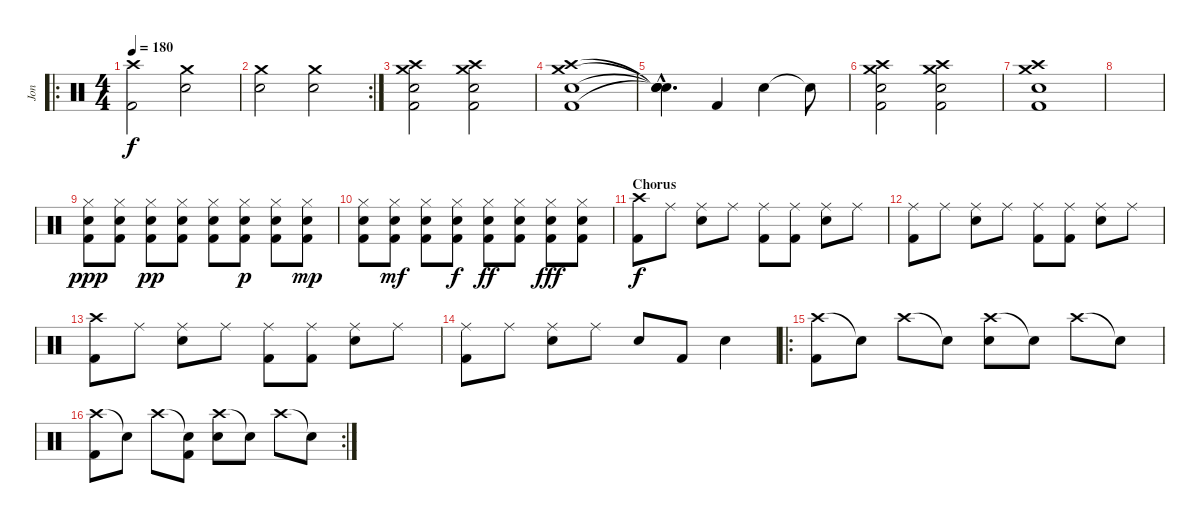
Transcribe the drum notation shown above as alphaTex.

\track ("Jon" "Jon") {instrument percussion}
\staff {score}
\articulation defaults
\ro
\ts (4 4)
\tempo 180
\clef neutral
\ks c
("Crash high (hit)" "Kick (hit) 2").2{dy f} ("Crash medium (hit)" "Snare (hit) 2").2 |
\rc 2
("Crash medium (hit)" "Snare (hit) 2").2 ("Crash medium (hit)" "Snare (hit) 2").2 |
("Crash medium (hit)" "Crash high (hit)" "Snare (hit) 2" "Kick (hit) 2").2 ("Crash medium (hit)" "Crash high (hit)" "Snare (hit) 2" "Kick (hit) 2").2 |
("Crash medium (hit)" "Crash high (hit)" "Snare (hit) 2" "Kick (hit) 2").1 |
("Snare (hit)"{hac t} "Snare (hit)"{hac t} "Snare (hit)"{hac t} "Snare (hit)"{hac t}).4{d} "Kick (hit) 2".4 "Snare (hit) 2".4 "Snare (hit)"{t}.8 |
("Crash medium (hit)" "Crash high (hit)" "Snare (hit) 2" "Kick (hit) 2").2 ("Crash medium (hit)" "Crash high (hit)" "Snare (hit) 2" "Kick (hit) 2").2 |
("Crash medium (hit)" "Crash high (hit)" "Snare (hit) 2" "Kick (hit) 2").1 |
|
("Hi-Hat (closed)" "Snare (hit) 2" "Kick (hit) 2").8{dy ppp} ("Hi-Hat (closed)" "Snare (hit) 2" "Kick (hit) 2").8 ("Hi-Hat (closed)" "Snare (hit) 2" "Kick (hit) 2").8{dy pp} ("Hi-Hat (closed)" "Snare (hit) 2" "Kick (hit) 2").8 ("Hi-Hat (closed)" "Snare (hit) 2" "Kick (hit) 2").8 ("Hi-Hat (closed)" "Snare (hit) 2" "Kick (hit) 2").8{dy p} ("Hi-Hat (closed)" "Snare (hit) 2" "Kick (hit) 2").8 ("Hi-Hat (closed)" "Snare (hit) 2" "Kick (hit) 2").8{dy mp} |
("Hi-Hat (closed)" "Snare (hit) 2" "Kick (hit) 2").8 ("Hi-Hat (closed)" "Snare (hit) 2" "Kick (hit) 2").8{dy mf} ("Hi-Hat (closed)" "Snare (hit) 2" "Kick (hit) 2").8 ("Hi-Hat (closed)" "Snare (hit) 2" "Kick (hit) 2").8{dy f} ("Hi-Hat (closed)" "Snare (hit) 2" "Kick (hit) 2").8{dy ff} ("Hi-Hat (closed)" "Snare (hit) 2" "Kick (hit) 2").8 ("Hi-Hat (closed)" "Snare (hit) 2" "Kick (hit) 2").8{dy fff} ("Hi-Hat (closed)" "Snare (hit) 2" "Kick (hit) 2").8 |
\section ("" "Chorus")
("Crash high (hit)" "Kick (hit) 2").8{dy f} "Ride (middle)".8 ("Ride (middle)" "Snare (hit) 2").8 "Ride (middle)".8 ("Ride (middle)" "Kick (hit) 2").8 ("Ride (middle)" "Kick (hit) 2").8 ("Ride (middle)" "Snare (hit) 2").8 "Ride (middle)".8 |
("Ride (middle)" "Kick (hit) 2").8 "Ride (middle)".8 ("Ride (middle)" "Snare (hit) 2").8 "Ride (middle)".8 ("Ride (middle)" "Kick (hit) 2").8 ("Ride (middle)" "Kick (hit) 2").8 ("Ride (middle)" "Snare (hit) 2").8 "Ride (middle)".8 |
("Crash high (hit)" "Kick (hit) 2").8 "Ride (middle)".8 ("Ride (middle)" "Snare (hit) 2").8 "Ride (middle)".8 ("Ride (middle)" "Kick (hit) 2").8 ("Ride (middle)" "Kick (hit) 2").8 ("Ride (middle)" "Snare (hit) 2").8 "Ride (middle)".8 |
("Ride (middle)" "Kick (hit) 2").8 "Ride (middle)".8 ("Ride (middle)" "Snare (hit) 2").8 "Ride (middle)".8 "Snare (hit) 2".8 "Kick (hit) 2".8 "Snare (hit) 2".4 |
\ro
("Crash high (hit)" "Kick (hit) 2").8 "Snare (hit)"{t}.8 "Crash high (hit)".8 "Snare (hit)"{t}.8 ("Crash high (hit)" "Snare (hit) 2").8 "Snare (hit)"{t}.8 "Crash high (hit)".8 "Snare (hit)"{t}.8 |
\rc 2
("Crash high (hit)" "Kick (hit) 2").8 "Snare (hit)"{t}.8 "Crash high (hit)".8 ("Snare (hit)"{t} "Kick (hit) 2").8 ("Crash high (hit)" "Snare (hit) 2").8 "Snare (hit)"{t}.8 "Crash high (hit)".8 "Snare (hit)"{t}.8
